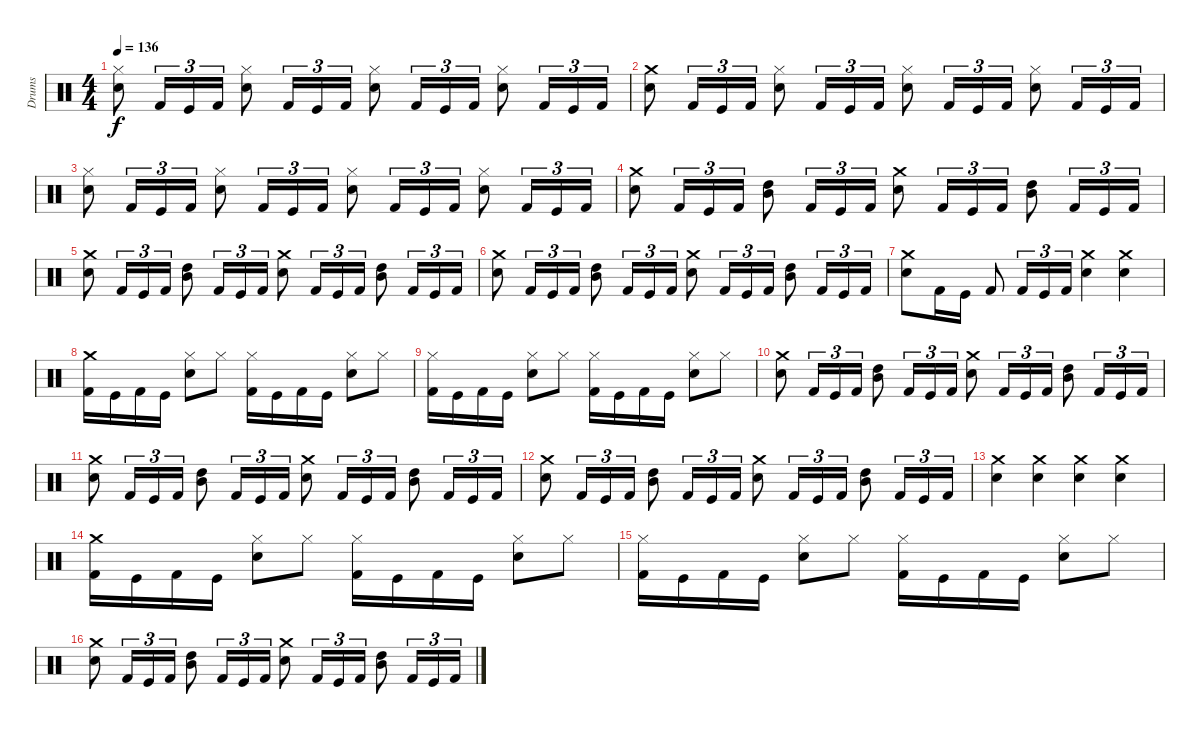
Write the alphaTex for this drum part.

\track ("Drums" "Drums") {instrument percussion}
\staff {score}
\articulation defaults
\ts (4 4)
\tempo 136
\clef neutral
\ks c
("Hi-Hat (closed)" "Snare (hit) 2").8{dy f} "Kick (hit) 2".16{tu (3 2)} "Kick (hit)".16{tu (3 2)} "Kick (hit) 2".16{tu (3 2)} ("Snare (hit) 2" "Hi-Hat (closed)").8 "Kick (hit) 2".16{tu (3 2)} "Kick (hit)".16{tu (3 2)} "Kick (hit) 2".16{tu (3 2)} ("Hi-Hat (closed)" "Snare (hit) 2").8 "Kick (hit) 2".16{tu (3 2)} "Kick (hit)".16{tu (3 2)} "Kick (hit) 2".16{tu (3 2)} ("Snare (hit) 2" "Hi-Hat (closed)").8 "Kick (hit) 2".16{tu (3 2)} "Kick (hit)".16{tu (3 2)} "Kick (hit) 2".16{tu (3 2)} |
("Snare (hit) 2" "Crash medium (hit)").8 "Kick (hit) 2".16{tu (3 2)} "Kick (hit)".16{tu (3 2)} "Kick (hit) 2".16{tu (3 2)} ("Hi-Hat (closed)" "Snare (hit) 2").8 "Kick (hit) 2".16{tu (3 2)} "Kick (hit)".16{tu (3 2)} "Kick (hit) 2".16{tu (3 2)} ("Snare (hit) 2" "Hi-Hat (closed)").8 "Kick (hit) 2".16{tu (3 2)} "Kick (hit)".16{tu (3 2)} "Kick (hit) 2".16{tu (3 2)} ("Hi-Hat (closed)" "Snare (hit) 2").8 "Kick (hit) 2".16{tu (3 2)} "Kick (hit)".16{tu (3 2)} "Kick (hit) 2".16{tu (3 2)} |
("Hi-Hat (closed)" "Snare (hit) 2").8 "Kick (hit) 2".16{tu (3 2)} "Kick (hit)".16{tu (3 2)} "Kick (hit) 2".16{tu (3 2)} ("Snare (hit) 2" "Hi-Hat (closed)").8 "Kick (hit) 2".16{tu (3 2)} "Kick (hit)".16{tu (3 2)} "Kick (hit) 2".16{tu (3 2)} ("Hi-Hat (closed)" "Snare (hit) 2").8 "Kick (hit) 2".16{tu (3 2)} "Kick (hit)".16{tu (3 2)} "Kick (hit) 2".16{tu (3 2)} ("Snare (hit) 2" "Hi-Hat (closed)").8 "Kick (hit) 2".16{tu (3 2)} "Kick (hit)".16{tu (3 2)} "Kick (hit) 2".16{tu (3 2)} |
("Crash medium (hit)" "Snare (hit) 2").8 "Kick (hit) 2".16{tu (3 2)} "Kick (hit)".16{tu (3 2)} "Kick (hit) 2".16{tu (3 2)} ("High Tom (hit)" "Mid Tom (hit)").8 "Kick (hit) 2".16{tu (3 2)} "Kick (hit)".16{tu (3 2)} "Kick (hit) 2".16{tu (3 2)} ("Crash medium (hit)" "Snare (hit) 2").8 "Kick (hit) 2".16{tu (3 2)} "Kick (hit)".16{tu (3 2)} "Kick (hit) 2".16{tu (3 2)} ("Mid Tom (hit)" "High Tom (hit)").8 "Kick (hit) 2".16{tu (3 2)} "Kick (hit)".16{tu (3 2)} "Kick (hit) 2".16{tu (3 2)} |
("Crash medium (hit)" "Snare (hit) 2").8 "Kick (hit) 2".16{tu (3 2)} "Kick (hit)".16{tu (3 2)} "Kick (hit) 2".16{tu (3 2)} ("High Tom (hit)" "Mid Tom (hit)").8 "Kick (hit) 2".16{tu (3 2)} "Kick (hit)".16{tu (3 2)} "Kick (hit) 2".16{tu (3 2)} ("Crash medium (hit)" "Snare (hit) 2").8 "Kick (hit) 2".16{tu (3 2)} "Kick (hit)".16{tu (3 2)} "Kick (hit) 2".16{tu (3 2)} ("Mid Tom (hit)" "High Tom (hit)").8 "Kick (hit) 2".16{tu (3 2)} "Kick (hit)".16{tu (3 2)} "Kick (hit) 2".16{tu (3 2)} |
("Crash medium (hit)" "Snare (hit) 2").8 "Kick (hit) 2".16{tu (3 2)} "Kick (hit)".16{tu (3 2)} "Kick (hit) 2".16{tu (3 2)} ("High Tom (hit)" "Mid Tom (hit)").8 "Kick (hit) 2".16{tu (3 2)} "Kick (hit)".16{tu (3 2)} "Kick (hit) 2".16{tu (3 2)} ("Crash medium (hit)" "Snare (hit) 2").8 "Kick (hit) 2".16{tu (3 2)} "Kick (hit)".16{tu (3 2)} "Kick (hit) 2".16{tu (3 2)} ("Mid Tom (hit)" "High Tom (hit)").8 "Kick (hit) 2".16{tu (3 2)} "Kick (hit)".16{tu (3 2)} "Kick (hit) 2".16{tu (3 2)} |
("Crash medium (hit)" "Snare (hit) 2").8 "Kick (hit) 2".16 "Kick (hit)".16 "Kick (hit) 2".8 "Kick (hit) 2".16{tu (3 2)} "Kick (hit)".16{tu (3 2)} "Kick (hit) 2".16{tu (3 2)} ("Snare (hit) 2" "Crash medium (hit)").4 ("Snare (hit) 2" "Crash medium (hit)").4 |
("Crash medium (hit)" "Kick (hit) 2").16 "Kick (hit)".16 "Kick (hit) 2".16 "Kick (hit)".16 ("Hi-Hat (closed)" "Snare (hit) 2").8 "Hi-Hat (closed)".8 ("Hi-Hat (closed)" "Kick (hit) 2").16 "Kick (hit)".16 "Kick (hit) 2".16 "Kick (hit)".16 ("Hi-Hat (closed)" "Snare (hit) 2").8 "Hi-Hat (closed)".8 |
("Hi-Hat (closed)" "Kick (hit) 2").16 "Kick (hit)".16 "Kick (hit) 2".16 "Kick (hit)".16 ("Hi-Hat (closed)" "Snare (hit) 2").8 "Hi-Hat (closed)".8 ("Hi-Hat (closed)" "Kick (hit) 2").16 "Kick (hit)".16 "Kick (hit) 2".16 "Kick (hit)".16 ("Hi-Hat (closed)" "Snare (hit) 2").8 "Hi-Hat (closed)".8 |
("Crash medium (hit)" "Snare (hit) 2").8 "Kick (hit) 2".16{tu (3 2)} "Kick (hit)".16{tu (3 2)} "Kick (hit) 2".16{tu (3 2)} ("High Tom (hit)" "Mid Tom (hit)").8 "Kick (hit) 2".16{tu (3 2)} "Kick (hit)".16{tu (3 2)} "Kick (hit) 2".16{tu (3 2)} ("Crash medium (hit)" "Snare (hit) 2").8 "Kick (hit) 2".16{tu (3 2)} "Kick (hit)".16{tu (3 2)} "Kick (hit) 2".16{tu (3 2)} ("Mid Tom (hit)" "High Tom (hit)").8 "Kick (hit) 2".16{tu (3 2)} "Kick (hit)".16{tu (3 2)} "Kick (hit) 2".16{tu (3 2)} |
("Crash medium (hit)" "Snare (hit) 2").8 "Kick (hit) 2".16{tu (3 2)} "Kick (hit)".16{tu (3 2)} "Kick (hit) 2".16{tu (3 2)} ("High Tom (hit)" "Mid Tom (hit)").8 "Kick (hit) 2".16{tu (3 2)} "Kick (hit)".16{tu (3 2)} "Kick (hit) 2".16{tu (3 2)} ("Crash medium (hit)" "Snare (hit) 2").8 "Kick (hit) 2".16{tu (3 2)} "Kick (hit)".16{tu (3 2)} "Kick (hit) 2".16{tu (3 2)} ("Mid Tom (hit)" "High Tom (hit)").8 "Kick (hit) 2".16{tu (3 2)} "Kick (hit)".16{tu (3 2)} "Kick (hit) 2".16{tu (3 2)} |
("Crash medium (hit)" "Snare (hit) 2").8 "Kick (hit) 2".16{tu (3 2)} "Kick (hit)".16{tu (3 2)} "Kick (hit) 2".16{tu (3 2)} ("High Tom (hit)" "Mid Tom (hit)").8 "Kick (hit) 2".16{tu (3 2)} "Kick (hit)".16{tu (3 2)} "Kick (hit) 2".16{tu (3 2)} ("Crash medium (hit)" "Snare (hit) 2").8 "Kick (hit) 2".16{tu (3 2)} "Kick (hit)".16{tu (3 2)} "Kick (hit) 2".16{tu (3 2)} ("Mid Tom (hit)" "High Tom (hit)").8 "Kick (hit) 2".16{tu (3 2)} "Kick (hit)".16{tu (3 2)} "Kick (hit) 2".16{tu (3 2)} |
("Snare (hit) 2" "Crash medium (hit)").4 ("Snare (hit) 2" "Crash medium (hit)").4 ("Snare (hit) 2" "Crash medium (hit)").4 ("Snare (hit) 2" "Crash medium (hit)").4 |
("Crash medium (hit)" "Kick (hit) 2").16 "Kick (hit)".16 "Kick (hit) 2".16 "Kick (hit)".16 ("Hi-Hat (closed)" "Snare (hit) 2").8 "Hi-Hat (closed)".8 ("Hi-Hat (closed)" "Kick (hit) 2").16 "Kick (hit)".16 "Kick (hit) 2".16 "Kick (hit)".16 ("Hi-Hat (closed)" "Snare (hit) 2").8 "Hi-Hat (closed)".8 |
("Hi-Hat (closed)" "Kick (hit) 2").16 "Kick (hit)".16 "Kick (hit) 2".16 "Kick (hit)".16 ("Hi-Hat (closed)" "Snare (hit) 2").8 "Hi-Hat (closed)".8 ("Hi-Hat (closed)" "Kick (hit) 2").16 "Kick (hit)".16 "Kick (hit) 2".16 "Kick (hit)".16 ("Hi-Hat (closed)" "Snare (hit) 2").8 "Hi-Hat (closed)".8 |
("Crash medium (hit)" "Snare (hit) 2").8 "Kick (hit) 2".16{tu (3 2)} "Kick (hit)".16{tu (3 2)} "Kick (hit) 2".16{tu (3 2)} ("High Tom (hit)" "Mid Tom (hit)").8 "Kick (hit) 2".16{tu (3 2)} "Kick (hit)".16{tu (3 2)} "Kick (hit) 2".16{tu (3 2)} ("Crash medium (hit)" "Snare (hit) 2").8 "Kick (hit) 2".16{tu (3 2)} "Kick (hit)".16{tu (3 2)} "Kick (hit) 2".16{tu (3 2)} ("Mid Tom (hit)" "High Tom (hit)").8 "Kick (hit) 2".16{tu (3 2)} "Kick (hit)".16{tu (3 2)} "Kick (hit) 2".16{tu (3 2)}
